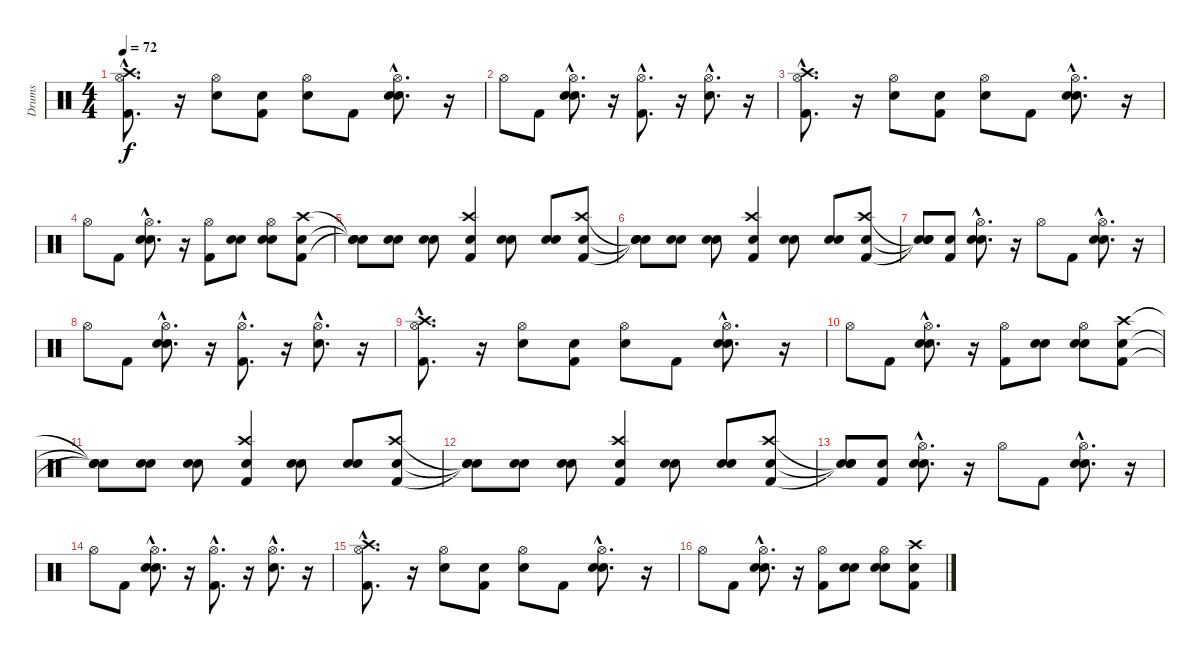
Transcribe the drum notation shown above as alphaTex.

\track ("Drums" "Drums") {instrument percussion}
\staff {score}
\articulation defaults
\ts (4 4)
\tempo 72
\clef neutral
\ks c
("Kick (hit) 2"{hac} "Hi-Hat (open)"{hac} "Crash high (hit)"{hac}).8{d dy f} r.16 ("Snare (hit) 2" "Hi-Hat (open)").8 ("Snare (hit)" "Kick (hit) 2").8 ("Snare (hit)" "Hi-Hat (open)").8 "Kick (hit) 2".8 ("Snare (hit)"{hac} "Snare (hit) 2"{hac} "Hi-Hat (open)"{hac}).8{d} r.16 |
"Hi-Hat (open)".8 "Kick (hit) 2".8 ("Snare (hit)"{hac} "Snare (hit) 2"{hac} "Hi-Hat (open)"{hac}).8{d} r.16 ("Kick (hit) 2"{hac} "Hi-Hat (open)"{hac}).8{d} r.16 ("Snare (hit) 2"{hac} "Hi-Hat (open)"{hac}).8{d} r.16 |
("Kick (hit) 2"{hac} "Hi-Hat (open)"{hac} "Crash high (hit)"{hac}).8{d} r.16 ("Snare (hit) 2" "Hi-Hat (open)").8 ("Snare (hit)" "Kick (hit) 2").8 ("Snare (hit)" "Hi-Hat (open)").8 "Kick (hit) 2".8 ("Snare (hit)"{hac} "Snare (hit) 2"{hac} "Hi-Hat (open)"{hac}).8{d} r.16 |
"Hi-Hat (open)".8 "Kick (hit) 2".8 ("Snare (hit)"{hac} "Snare (hit) 2"{hac} "Hi-Hat (open)"{hac}).8{d} r.16 ("Kick (hit) 2" "Hi-Hat (open)").8 ("Snare (hit)" "Snare (hit) 2").8 ("Snare (hit)" "Snare (hit) 2" "Hi-Hat (open)").8 ("Snare (hit)" "Kick (hit) 2" "Crash high (hit)").8 |
("Snare (hit)"{t} "Snare (hit)"{t} "Snare (hit)"{t}).8 ("Snare (hit)" "Snare (hit) 2").8 ("Snare (hit)" "Snare (hit) 2").8 ("Snare (hit)" "Kick (hit) 2" "Crash high (hit)").4 ("Snare (hit)" "Snare (hit) 2").8 ("Snare (hit)" "Snare (hit) 2").8 ("Snare (hit)" "Kick (hit) 2" "Crash high (hit)").8 |
("Snare (hit)"{t} "Snare (hit)"{t} "Snare (hit)"{t}).8 ("Snare (hit)" "Snare (hit) 2").8 ("Snare (hit)" "Snare (hit) 2").8 ("Snare (hit)" "Kick (hit) 2" "Crash high (hit)").4 ("Snare (hit)" "Snare (hit) 2").8 ("Snare (hit)" "Snare (hit) 2").8 ("Snare (hit)" "Kick (hit) 2" "Crash high (hit)").8 |
("Snare (hit)"{t} "Snare (hit)"{t} "Snare (hit)"{t}).8 ("Snare (hit)" "Kick (hit) 2").8 ("Snare (hit)"{hac} "Snare (hit) 2"{hac} "Hi-Hat (open)"{hac}).8{d} r.16 "Hi-Hat (open)".8 "Kick (hit) 2".8 ("Snare (hit)"{hac} "Snare (hit) 2"{hac} "Hi-Hat (open)"{hac}).8{d} r.16 |
"Hi-Hat (open)".8 "Kick (hit) 2".8 ("Snare (hit)"{hac} "Snare (hit) 2"{hac} "Hi-Hat (open)"{hac}).8{d} r.16 ("Kick (hit) 2"{hac} "Hi-Hat (open)"{hac}).8{d} r.16 ("Snare (hit) 2"{hac} "Hi-Hat (open)"{hac}).8{d} r.16 |
("Kick (hit) 2"{hac} "Hi-Hat (open)"{hac} "Crash high (hit)"{hac}).8{d} r.16 ("Snare (hit) 2" "Hi-Hat (open)").8 ("Snare (hit)" "Kick (hit) 2").8 ("Snare (hit)" "Hi-Hat (open)").8 "Kick (hit) 2".8 ("Snare (hit)"{hac} "Snare (hit) 2"{hac} "Hi-Hat (open)"{hac}).8{d} r.16 |
"Hi-Hat (open)".8 "Kick (hit) 2".8 ("Snare (hit)"{hac} "Snare (hit) 2"{hac} "Hi-Hat (open)"{hac}).8{d} r.16 ("Kick (hit) 2" "Hi-Hat (open)").8 ("Snare (hit)" "Snare (hit) 2").8 ("Snare (hit)" "Snare (hit) 2" "Hi-Hat (open)").8 ("Snare (hit)" "Kick (hit) 2" "Crash high (hit)").8 |
("Snare (hit)"{t} "Snare (hit)"{t} "Snare (hit)"{t}).8 ("Snare (hit)" "Snare (hit) 2").8 ("Snare (hit)" "Snare (hit) 2").8 ("Snare (hit)" "Kick (hit) 2" "Crash high (hit)").4 ("Snare (hit)" "Snare (hit) 2").8 ("Snare (hit)" "Snare (hit) 2").8 ("Snare (hit)" "Kick (hit) 2" "Crash high (hit)").8 |
("Snare (hit)"{t} "Snare (hit)"{t} "Snare (hit)"{t}).8 ("Snare (hit)" "Snare (hit) 2").8 ("Snare (hit)" "Snare (hit) 2").8 ("Snare (hit)" "Kick (hit) 2" "Crash high (hit)").4 ("Snare (hit)" "Snare (hit) 2").8 ("Snare (hit)" "Snare (hit) 2").8 ("Snare (hit)" "Kick (hit) 2" "Crash high (hit)").8 |
("Snare (hit)"{t} "Snare (hit)"{t} "Snare (hit)"{t}).8 ("Snare (hit)" "Kick (hit) 2").8 ("Snare (hit)"{hac} "Snare (hit) 2"{hac} "Hi-Hat (open)"{hac}).8{d} r.16 "Hi-Hat (open)".8 "Kick (hit) 2".8 ("Snare (hit)"{hac} "Snare (hit) 2"{hac} "Hi-Hat (open)"{hac}).8{d} r.16 |
"Hi-Hat (open)".8 "Kick (hit) 2".8 ("Snare (hit)"{hac} "Snare (hit) 2"{hac} "Hi-Hat (open)"{hac}).8{d} r.16 ("Kick (hit) 2"{hac} "Hi-Hat (open)"{hac}).8{d} r.16 ("Snare (hit) 2"{hac} "Hi-Hat (open)"{hac}).8{d} r.16 |
("Kick (hit) 2"{hac} "Hi-Hat (open)"{hac} "Crash high (hit)"{hac}).8{d} r.16 ("Snare (hit) 2" "Hi-Hat (open)").8 ("Snare (hit)" "Kick (hit) 2").8 ("Snare (hit)" "Hi-Hat (open)").8 "Kick (hit) 2".8 ("Snare (hit)"{hac} "Snare (hit) 2"{hac} "Hi-Hat (open)"{hac}).8{d} r.16 |
"Hi-Hat (open)".8 "Kick (hit) 2".8 ("Snare (hit)"{hac} "Snare (hit) 2"{hac} "Hi-Hat (open)"{hac}).8{d} r.16 ("Kick (hit) 2" "Hi-Hat (open)").8 ("Snare (hit)" "Snare (hit) 2").8 ("Snare (hit)" "Snare (hit) 2" "Hi-Hat (open)").8 ("Snare (hit)" "Kick (hit) 2" "Crash high (hit)").8
